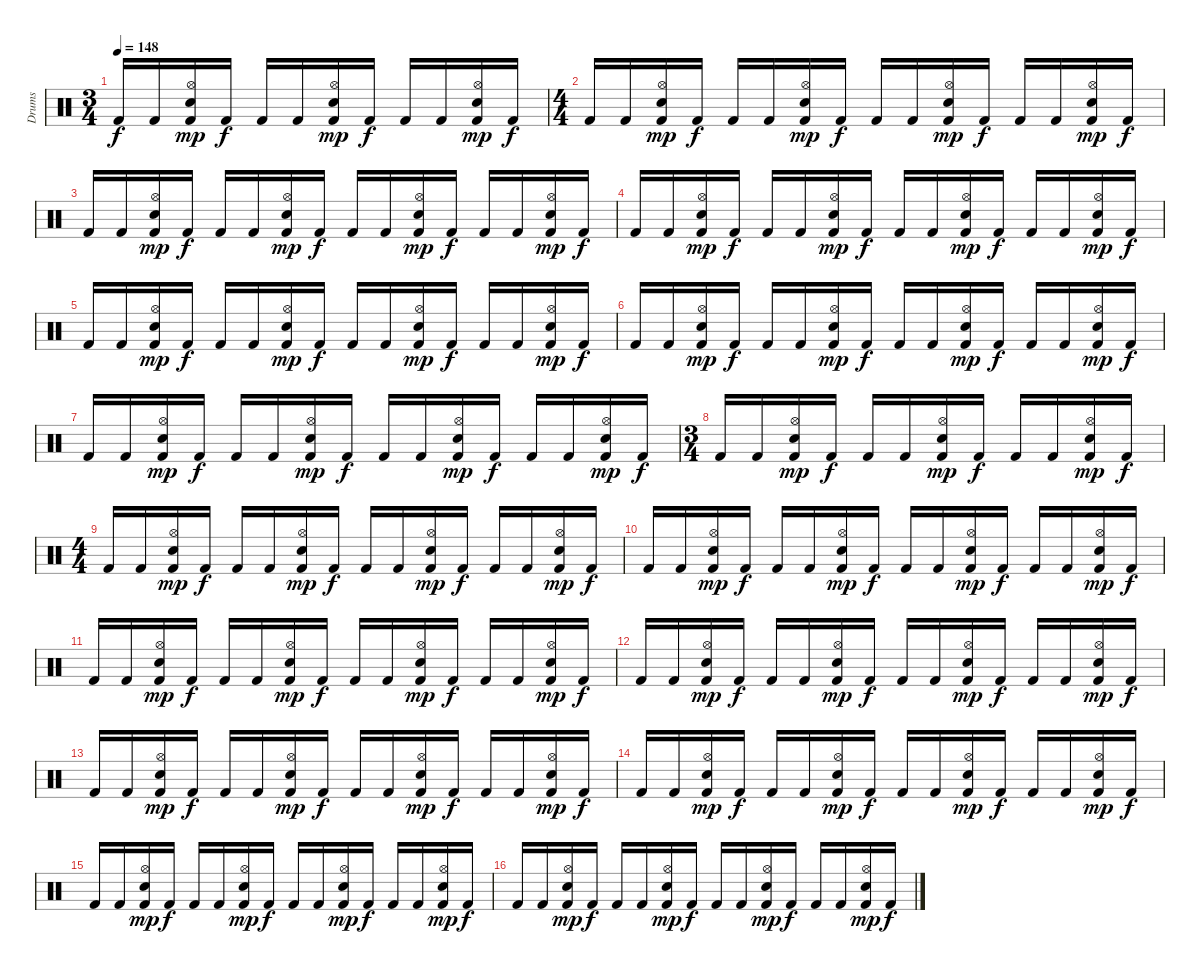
\track ("Drums" "Drums") {instrument percussion}
\staff
\articulation defaults
\ts (3 4)
\tempo 148
\clef neutral
\ks c "Kick (hit) 2".16{dy f} "Kick (hit) 2".16
("Hi-Hat (open)" "Kick (hit) 2" "Electric Snare (hit)").16{dy mp} "Kick (hit) 2".16{dy f} "Kick (hit) 2".16 "Kick (hit) 2".16 ("Hi-Hat (open)" "Kick (hit) 2" "Electric Snare (hit)").16{dy mp} "Kick (hit) 2".16{dy f} "Kick (hit) 2".16 "Kick (hit) 2".16 ("Hi-Hat (open)" "Kick (hit) 2" "Electric Snare (hit)").16{dy mp} "Kick (hit) 2".16{dy f} |
\ts (4 4)
"Kick (hit) 2".16 "Kick (hit) 2".16 ("Hi-Hat (open)" "Kick (hit) 2" "Electric Snare (hit)").16{dy mp} "Kick (hit) 2".16{dy f} "Kick (hit) 2".16 "Kick (hit) 2".16 ("Hi-Hat (open)" "Kick (hit) 2" "Electric Snare (hit)").16{dy mp} "Kick (hit) 2".16{dy f} "Kick (hit) 2".16 "Kick (hit) 2".16 ("Hi-Hat (open)" "Kick (hit) 2" "Electric Snare (hit)").16{dy mp} "Kick (hit) 2".16{dy f} "Kick (hit) 2".16 "Kick (hit) 2".16 ("Hi-Hat (open)" "Kick (hit) 2" "Electric Snare (hit)").16{dy mp} "Kick (hit) 2".16{dy f} |
"Kick (hit) 2".16 "Kick (hit) 2".16 ("Hi-Hat (open)" "Kick (hit) 2" "Electric Snare (hit)").16{dy mp} "Kick (hit) 2".16{dy f} "Kick (hit) 2".16 "Kick (hit) 2".16 ("Hi-Hat (open)" "Kick (hit) 2" "Electric Snare (hit)").16{dy mp} "Kick (hit) 2".16{dy f} "Kick (hit) 2".16 "Kick (hit) 2".16 ("Hi-Hat (open)" "Kick (hit) 2" "Electric Snare (hit)").16{dy mp} "Kick (hit) 2".16{dy f} "Kick (hit) 2".16 "Kick (hit) 2".16 ("Hi-Hat (open)" "Kick (hit) 2" "Electric Snare (hit)").16{dy mp} "Kick (hit) 2".16{dy f} |
"Kick (hit) 2".16 "Kick (hit) 2".16 ("Hi-Hat (open)" "Kick (hit) 2" "Electric Snare (hit)").16{dy mp} "Kick (hit) 2".16{dy f} "Kick (hit) 2".16 "Kick (hit) 2".16 ("Hi-Hat (open)" "Kick (hit) 2" "Electric Snare (hit)").16{dy mp} "Kick (hit) 2".16{dy f} "Kick (hit) 2".16 "Kick (hit) 2".16 ("Hi-Hat (open)" "Kick (hit) 2" "Electric Snare (hit)").16{dy mp} "Kick (hit) 2".16{dy f} "Kick (hit) 2".16 "Kick (hit) 2".16 ("Hi-Hat (open)" "Kick (hit) 2" "Electric Snare (hit)").16{dy mp} "Kick (hit) 2".16{dy f} |
"Kick (hit) 2".16 "Kick (hit) 2".16 ("Hi-Hat (open)" "Kick (hit) 2" "Electric Snare (hit)").16{dy mp} "Kick (hit) 2".16{dy f} "Kick (hit) 2".16 "Kick (hit) 2".16 ("Hi-Hat (open)" "Kick (hit) 2" "Electric Snare (hit)").16{dy mp} "Kick (hit) 2".16{dy f} "Kick (hit) 2".16 "Kick (hit) 2".16 ("Hi-Hat (open)" "Kick (hit) 2" "Electric Snare (hit)").16{dy mp} "Kick (hit) 2".16{dy f} "Kick (hit) 2".16 "Kick (hit) 2".16 ("Hi-Hat (open)" "Kick (hit) 2" "Electric Snare (hit)").16{dy mp} "Kick (hit) 2".16{dy f} |
"Kick (hit) 2".16 "Kick (hit) 2".16 ("Hi-Hat (open)" "Kick (hit) 2" "Electric Snare (hit)").16{dy mp} "Kick (hit) 2".16{dy f} "Kick (hit) 2".16 "Kick (hit) 2".16 ("Hi-Hat (open)" "Kick (hit) 2" "Electric Snare (hit)").16{dy mp} "Kick (hit) 2".16{dy f} "Kick (hit) 2".16 "Kick (hit) 2".16 ("Hi-Hat (open)" "Kick (hit) 2" "Electric Snare (hit)").16{dy mp} "Kick (hit) 2".16{dy f} "Kick (hit) 2".16 "Kick (hit) 2".16 ("Hi-Hat (open)" "Kick (hit) 2" "Electric Snare (hit)").16{dy mp} "Kick (hit) 2".16{dy f} |
"Kick (hit) 2".16 "Kick (hit) 2".16 ("Hi-Hat (open)" "Kick (hit) 2" "Electric Snare (hit)").16{dy mp} "Kick (hit) 2".16{dy f} "Kick (hit) 2".16 "Kick (hit) 2".16 ("Hi-Hat (open)" "Kick (hit) 2" "Electric Snare (hit)").16{dy mp} "Kick (hit) 2".16{dy f} "Kick (hit) 2".16 "Kick (hit) 2".16 ("Hi-Hat (open)" "Kick (hit) 2" "Electric Snare (hit)").16{dy mp} "Kick (hit) 2".16{dy f} "Kick (hit) 2".16 "Kick (hit) 2".16 ("Hi-Hat (open)" "Kick (hit) 2" "Electric Snare (hit)").16{dy mp} "Kick (hit) 2".16{dy f} |
\ts (3 4)
"Kick (hit) 2".16 "Kick (hit) 2".16 ("Hi-Hat (open)" "Kick (hit) 2" "Electric Snare (hit)").16{dy mp} "Kick (hit) 2".16{dy f} "Kick (hit) 2".16 "Kick (hit) 2".16 ("Hi-Hat (open)" "Kick (hit) 2" "Electric Snare (hit)").16{dy mp} "Kick (hit) 2".16{dy f} "Kick (hit) 2".16 "Kick (hit) 2".16 ("Hi-Hat (open)" "Kick (hit) 2" "Electric Snare (hit)").16{dy mp} "Kick (hit) 2".16{dy f} |
\ts (4 4)
"Kick (hit) 2".16 "Kick (hit) 2".16 ("Hi-Hat (open)" "Kick (hit) 2" "Electric Snare (hit)").16{dy mp} "Kick (hit) 2".16{dy f} "Kick (hit) 2".16 "Kick (hit) 2".16 ("Hi-Hat (open)" "Kick (hit) 2" "Electric Snare (hit)").16{dy mp} "Kick (hit) 2".16{dy f} "Kick (hit) 2".16 "Kick (hit) 2".16 ("Hi-Hat (open)" "Kick (hit) 2" "Electric Snare (hit)").16{dy mp} "Kick (hit) 2".16{dy f} "Kick (hit) 2".16 "Kick (hit) 2".16 ("Hi-Hat (open)" "Kick (hit) 2" "Electric Snare (hit)").16{dy mp} "Kick (hit) 2".16{dy f} |
"Kick (hit) 2".16 "Kick (hit) 2".16 ("Hi-Hat (open)" "Kick (hit) 2" "Electric Snare (hit)").16{dy mp} "Kick (hit) 2".16{dy f} "Kick (hit) 2".16 "Kick (hit) 2".16 ("Hi-Hat (open)" "Kick (hit) 2" "Electric Snare (hit)").16{dy mp} "Kick (hit) 2".16{dy f} "Kick (hit) 2".16 "Kick (hit) 2".16 ("Hi-Hat (open)" "Kick (hit) 2" "Electric Snare (hit)").16{dy mp} "Kick (hit) 2".16{dy f} "Kick (hit) 2".16 "Kick (hit) 2".16 ("Hi-Hat (open)" "Kick (hit) 2" "Electric Snare (hit)").16{dy mp} "Kick (hit) 2".16{dy f} |
"Kick (hit) 2".16 "Kick (hit) 2".16 ("Hi-Hat (open)" "Kick (hit) 2" "Electric Snare (hit)").16{dy mp} "Kick (hit) 2".16{dy f} "Kick (hit) 2".16 "Kick (hit) 2".16 ("Hi-Hat (open)" "Kick (hit) 2" "Electric Snare (hit)").16{dy mp} "Kick (hit) 2".16{dy f} "Kick (hit) 2".16 "Kick (hit) 2".16 ("Hi-Hat (open)" "Kick (hit) 2" "Electric Snare (hit)").16{dy mp} "Kick (hit) 2".16{dy f} "Kick (hit) 2".16 "Kick (hit) 2".16 ("Hi-Hat (open)" "Kick (hit) 2" "Electric Snare (hit)").16{dy mp} "Kick (hit) 2".16{dy f} |
"Kick (hit) 2".16 "Kick (hit) 2".16 ("Hi-Hat (open)" "Kick (hit) 2" "Electric Snare (hit)").16{dy mp} "Kick (hit) 2".16{dy f} "Kick (hit) 2".16 "Kick (hit) 2".16 ("Hi-Hat (open)" "Kick (hit) 2" "Electric Snare (hit)").16{dy mp} "Kick (hit) 2".16{dy f} "Kick (hit) 2".16 "Kick (hit) 2".16 ("Hi-Hat (open)" "Kick (hit) 2" "Electric Snare (hit)").16{dy mp} "Kick (hit) 2".16{dy f} "Kick (hit) 2".16 "Kick (hit) 2".16 ("Hi-Hat (open)" "Kick (hit) 2" "Electric Snare (hit)").16{dy mp} "Kick (hit) 2".16{dy f} |
"Kick (hit) 2".16 "Kick (hit) 2".16 ("Hi-Hat (open)" "Kick (hit) 2" "Electric Snare (hit)").16{dy mp} "Kick (hit) 2".16{dy f} "Kick (hit) 2".16 "Kick (hit) 2".16 ("Hi-Hat (open)" "Kick (hit) 2" "Electric Snare (hit)").16{dy mp} "Kick (hit) 2".16{dy f} "Kick (hit) 2".16 "Kick (hit) 2".16 ("Hi-Hat (open)" "Kick (hit) 2" "Electric Snare (hit)").16{dy mp} "Kick (hit) 2".16{dy f} "Kick (hit) 2".16 "Kick (hit) 2".16 ("Hi-Hat (open)" "Kick (hit) 2" "Electric Snare (hit)").16{dy mp} "Kick (hit) 2".16{dy f} |
"Kick (hit) 2".16 "Kick (hit) 2".16 ("Hi-Hat (open)" "Kick (hit) 2" "Electric Snare (hit)").16{dy mp} "Kick (hit) 2".16{dy f} "Kick (hit) 2".16 "Kick (hit) 2".16 ("Hi-Hat (open)" "Kick (hit) 2" "Electric Snare (hit)").16{dy mp} "Kick (hit) 2".16{dy f} "Kick (hit) 2".16 "Kick (hit) 2".16 ("Hi-Hat (open)" "Kick (hit) 2" "Electric Snare (hit)").16{dy mp} "Kick (hit) 2".16{dy f} "Kick (hit) 2".16 "Kick (hit) 2".16 ("Hi-Hat (open)" "Kick (hit) 2" "Electric Snare (hit)").16{dy mp} "Kick (hit) 2".16{dy f} |
"Kick (hit) 2".16 "Kick (hit) 2".16 ("Hi-Hat (open)" "Kick (hit) 2" "Electric Snare (hit)").16{dy mp} "Kick (hit) 2".16{dy f} "Kick (hit) 2".16 "Kick (hit) 2".16 ("Hi-Hat (open)" "Kick (hit) 2" "Electric Snare (hit)").16{dy mp} "Kick (hit) 2".16{dy f} "Kick (hit) 2".16 "Kick (hit) 2".16 ("Hi-Hat (open)" "Kick (hit) 2" "Electric Snare (hit)").16{dy mp} "Kick (hit) 2".16{dy f} "Kick (hit) 2".16 "Kick (hit) 2".16 ("Hi-Hat (open)" "Kick (hit) 2" "Electric Snare (hit)").16{dy mp} "Kick (hit) 2".16{dy f} |
"Kick (hit) 2".16 "Kick (hit) 2".16 ("Hi-Hat (open)" "Kick (hit) 2" "Electric Snare (hit)").16{dy mp} "Kick (hit) 2".16{dy f} "Kick (hit) 2".16 "Kick (hit) 2".16 ("Hi-Hat (open)" "Kick (hit) 2" "Electric Snare (hit)").16{dy mp} "Kick (hit) 2".16{dy f} "Kick (hit) 2".16 "Kick (hit) 2".16 ("Hi-Hat (open)" "Kick (hit) 2" "Electric Snare (hit)").16{dy mp} "Kick (hit) 2".16{dy f} "Kick (hit) 2".16 "Kick (hit) 2".16 ("Hi-Hat (open)" "Kick (hit) 2" "Electric Snare (hit)").16{dy mp} "Kick (hit) 2".16{dy f}
